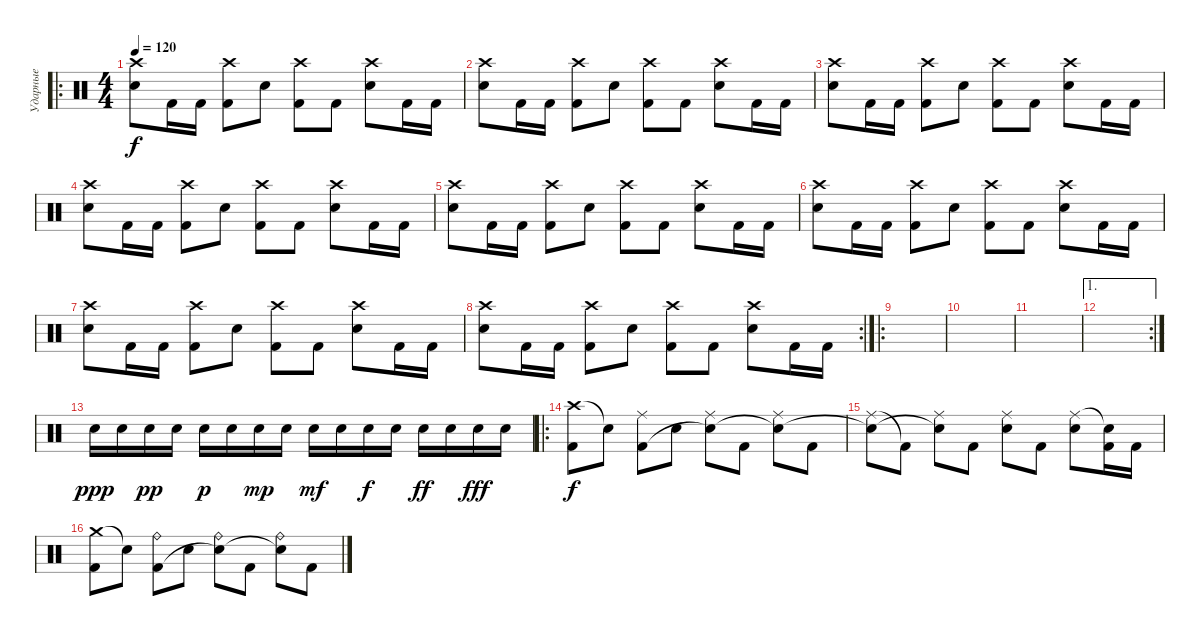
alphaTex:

\track ("Ударные" "Ударные") {instrument percussion}
\staff {score}
\articulation defaults
\ro
\ts (4 4)
\tempo 120
\clef neutral
\ks c
("Snare (hit) 2" "Crash high (hit)").8{dy f} "Kick (hit) 2".16 "Kick (hit) 2".16 ("Kick (hit) 2" "Crash high (hit)").8 "Snare (hit) 2".8 ("Kick (hit) 2" "Crash high (hit)").8 "Kick (hit) 2".8 ("Snare (hit) 2" "Crash high (hit)").8 "Kick (hit) 2".16 "Kick (hit) 2".16 |
("Snare (hit) 2" "Crash high (hit)").8 "Kick (hit) 2".16 "Kick (hit) 2".16 ("Kick (hit) 2" "Crash high (hit)").8 "Snare (hit) 2".8 ("Kick (hit) 2" "Crash high (hit)").8 "Kick (hit) 2".8 ("Snare (hit) 2" "Crash high (hit)").8 "Kick (hit) 2".16 "Kick (hit) 2".16 |
("Snare (hit) 2" "Crash high (hit)").8 "Kick (hit) 2".16 "Kick (hit) 2".16 ("Kick (hit) 2" "Crash high (hit)").8 "Snare (hit) 2".8 ("Kick (hit) 2" "Crash high (hit)").8 "Kick (hit) 2".8 ("Snare (hit) 2" "Crash high (hit)").8 "Kick (hit) 2".16 "Kick (hit) 2".16 |
("Snare (hit) 2" "Crash high (hit)").8 "Kick (hit) 2".16 "Kick (hit) 2".16 ("Kick (hit) 2" "Crash high (hit)").8 "Snare (hit) 2".8 ("Kick (hit) 2" "Crash high (hit)").8 "Kick (hit) 2".8 ("Snare (hit) 2" "Crash high (hit)").8 "Kick (hit) 2".16 "Kick (hit) 2".16 |
("Snare (hit) 2" "Crash high (hit)").8 "Kick (hit) 2".16 "Kick (hit) 2".16 ("Kick (hit) 2" "Crash high (hit)").8 "Snare (hit) 2".8 ("Kick (hit) 2" "Crash high (hit)").8 "Kick (hit) 2".8 ("Snare (hit) 2" "Crash high (hit)").8 "Kick (hit) 2".16 "Kick (hit) 2".16 |
("Snare (hit) 2" "Crash high (hit)").8 "Kick (hit) 2".16 "Kick (hit) 2".16 ("Kick (hit) 2" "Crash high (hit)").8 "Snare (hit) 2".8 ("Kick (hit) 2" "Crash high (hit)").8 "Kick (hit) 2".8 ("Snare (hit) 2" "Crash high (hit)").8 "Kick (hit) 2".16 "Kick (hit) 2".16 |
("Snare (hit) 2" "Crash high (hit)").8 "Kick (hit) 2".16 "Kick (hit) 2".16 ("Kick (hit) 2" "Crash high (hit)").8 "Snare (hit) 2".8 ("Kick (hit) 2" "Crash high (hit)").8 "Kick (hit) 2".8 ("Snare (hit) 2" "Crash high (hit)").8 "Kick (hit) 2".16 "Kick (hit) 2".16 |
\rc 2
("Snare (hit) 2" "Crash high (hit)").8 "Kick (hit) 2".16 "Kick (hit) 2".16 ("Kick (hit) 2" "Crash high (hit)").8 "Snare (hit) 2".8 ("Kick (hit) 2" "Crash high (hit)").8 "Kick (hit) 2".8 ("Snare (hit) 2" "Crash high (hit)").8 "Kick (hit) 2".16 "Kick (hit) 2".16 |
\ro
|
|
|
\ae 1
\rc 2
|
"Snare (hit) 2".16{dy ppp} "Snare (hit) 2".16 "Snare (hit) 2".16{dy pp} "Snare (hit) 2".16 "Snare (hit) 2".16{dy p} "Snare (hit) 2".16 "Snare (hit) 2".16{dy mp} "Snare (hit) 2".16 "Snare (hit) 2".16{dy mf} "Snare (hit) 2".16 "Snare (hit) 2".16{dy f} "Snare (hit) 2".16 "Snare (hit) 2".16{dy ff} "Snare (hit) 2".16 "Snare (hit) 2".16{dy fff} "Snare (hit) 2".16 |
\ro
("Crash high (hit)" "Kick (hit) 2").8{dy f} "Snare (hit)"{t}.8 ("Ride (middle)" "Kick (hit) 2").8 "Snare (hit) 2".8 ("Ride (middle)" "Snare (hit)"{t}).8 "Kick (hit) 2".8 ("Ride (middle)" "Snare (hit)"{t}).8 "Kick (hit) 2".8 |
("Ride (middle)" "Snare (hit)"{t}).8 "Kick (hit) 2"{t}.8 ("Ride (middle)" "Snare (hit) 2"{t}).8 "Kick (hit) 2".8 ("Ride (middle)" "Snare (hit) 2").8 "Kick (hit) 2".8 ("Ride (middle)" "Snare (hit) 2").8 ("Snare (hit)"{t} "Kick (hit) 2").16 "Kick (hit) 2".16 |
("Crash medium (hit)" "Kick (hit) 2").8 "Snare (hit)"{t}.8 ("Ride (bell)" "Kick (hit) 2").8 "Snare (hit) 2".8 ("Ride (bell)" "Snare (hit)"{t}).8 "Kick (hit) 2".8 ("Ride (bell)" "Snare (hit)"{t}).8 "Kick (hit) 2".8
